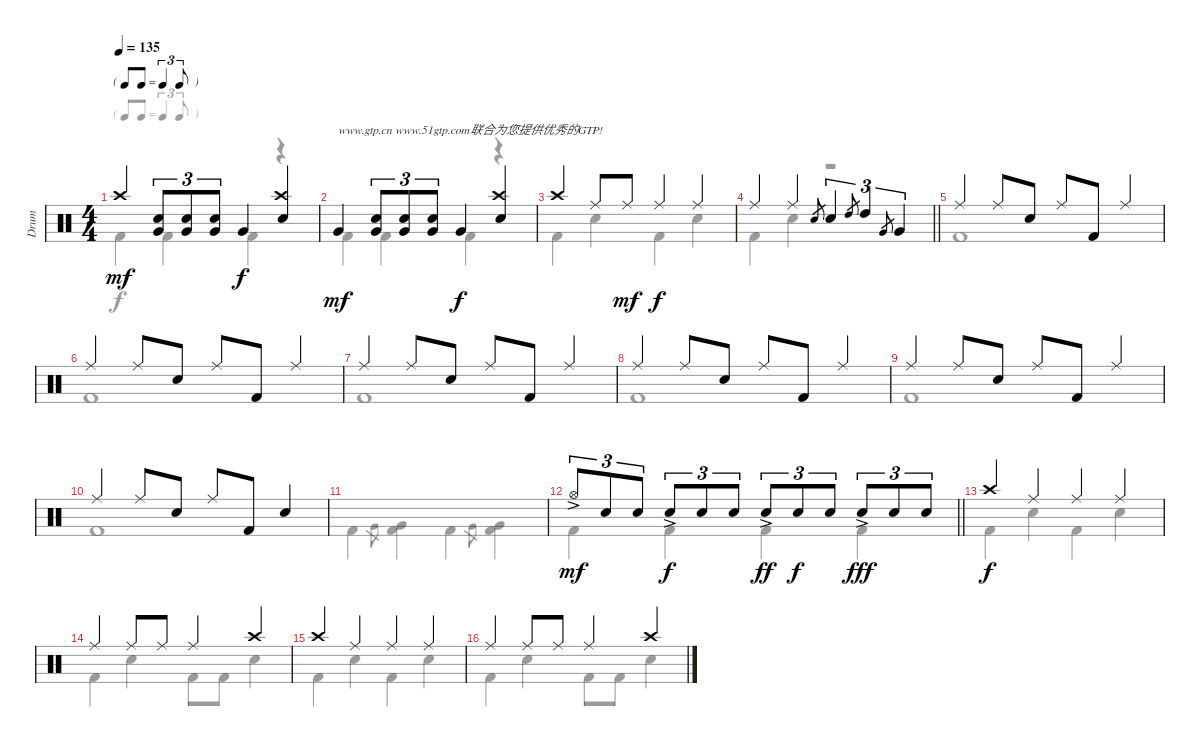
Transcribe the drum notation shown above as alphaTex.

\track ("Drum" "Drum") {instrument percussion}
\staff {score}
\articulation defaults
\voice
\ts (4 4)
\tf triplet8th
\tempo 135
\clef neutral
\ks c "Crash high (hit)".4{dy mf}
("Snare (hit) 2" "Very Low Tom (hit)").8{tu (3 2)} ("Snare (hit) 2" "Very Low Tom (hit)").8{tu (3 2)} ("Snare (hit) 2" "Very Low Tom (hit)").8{tu (3 2)} "Very Low Tom (hit)".4{dy f} ("Crash high (hit)" "Snare (hit) 2").4 |
"Very Low Tom (hit)".4{txt "www.gtp.cn www.51gtp.com联合为您提供优秀的GTP!" dy mf} ("Snare (hit) 2" "Very Low Tom (hit)").8{tu (3 2)} ("Snare (hit) 2" "Very Low Tom (hit)").8{tu (3 2)} ("Snare (hit) 2" "Very Low Tom (hit)").8{tu (3 2)} "Very Low Tom (hit)".4{dy f} ("Crash high (hit)" "Snare (hit) 2").4 |
"Crash high (hit)".4 "Ride (middle)".8 "Ride (middle)".8{dy mf} "Ride (middle)".4{dy f} "Ride (middle)".4 |
\barLineRight lightlight "Ride (middle)".4 "Ride (middle)".4 "Snare (hit) 2".8{gr} "Snare (hit) 2".4{tu (3 2)} "High Tom (hit)".8{gr} "High Tom (hit)".4{tu (3 2)} "Very Low Tom (hit)".8{gr} "Very Low Tom (hit)".4{tu (3 2)}
|
"Ride (middle)".4 "Ride (middle)".8 "Snare (hit) 2".8 "Ride (middle)".8 "Kick (hit) 2".8 "Ride (middle)".4 |
"Ride (middle)".4 "Ride (middle)".8 "Snare (hit) 2".8 "Ride (middle)".8 "Kick (hit) 2".8 "Ride (middle)".4 |
"Ride (middle)".4 "Ride (middle)".8 "Snare (hit) 2".8 "Ride (middle)".8 "Kick (hit) 2".8 "Ride (middle)".4 |
"Ride (middle)".4 "Ride (middle)".8 "Snare (hit) 2".8 "Ride (middle)".8 "Kick (hit) 2".8 "Ride (middle)".4 |
"Ride (middle)".4 "Ride (middle)".8 "Snare (hit) 2".8 "Ride (middle)".8 "Kick (hit) 2".8 "Ride (middle)".4 |
"Ride (middle)".4 "Ride (middle)".8 "Snare (hit) 2".8 "Ride (middle)".8 "Kick (hit) 2".8 "Snare (hit) 2".4 |
|
\barLineRight lightlight "Hi-Hat (open)"{ac}.8{tu (3 2) dy mf} "Snare (hit) 2".8{tu (3 2)} "Snare (hit) 2".8{tu (3 2)} "Snare (hit) 2"{ac}.8{tu (3 2) dy f} "Snare (hit) 2".8{tu (3 2)} "Snare (hit) 2".8{tu (3 2)} "Snare (hit) 2"{ac}.8{tu (3 2) dy ff} "Snare (hit) 2".8{tu (3 2) dy f} "Snare (hit) 2".8{tu (3 2)} "Snare (hit) 2"{ac}.8{tu (3 2) dy fff} "Snare (hit) 2".8{tu (3 2)} "Snare (hit) 2".8{tu (3 2)}
|
"Crash high (hit)".4{dy f} "Ride (middle)".4 "Ride (middle)".4 "Ride (middle)".4 |
"Ride (middle)".4 "Ride (middle)".8 "Ride (middle)".8 "Ride (middle)".4 "Crash high (hit)".4 |
"Crash high (hit)".4 "Ride (middle)".4 "Ride (middle)".4 "Ride (middle)".4 |
"Ride (middle)".4 "Ride (middle)".8 "Ride (middle)".8 "Ride (middle)".4 "Crash high (hit)".4
\voice
\clef neutral
\ottava regular
\simile none
\ks c "Kick (hit) 2".4{dy f} "Kick (hit) 2".4 "Kick (hit) 2".4
r.4 |
"Kick (hit) 2".4 "Kick (hit) 2".4 "Kick (hit) 2".4 r.4 |
"Kick (hit) 2".4 "Snare (hit) 2".4 "Kick (hit) 2".4 "Snare (hit) 2".4 |
\barLineRight lightlight "Kick (hit) 2".4 "Snare (hit) 2".4
r.2 |
"Kick (hit) 2".1 |
"Kick (hit) 2".1 |
"Kick (hit) 2".1 |
"Kick (hit) 2".1 |
"Kick (hit) 2".1 |
"Kick (hit) 2".1 |
"Kick (hit) 2".4 "Very Low Tom (hit)".8{gr} ("Kick (hit) 2" "Very Low Tom (hit)").4 "Kick (hit) 2".4 "Very Low Tom (hit)".8{gr} ("Kick (hit) 2" "Very Low Tom (hit)").4 |
\barLineRight lightlight "Kick (hit) 2".4 "Kick (hit) 2".4 "Kick (hit) 2".4 "Kick (hit) 2".4
|
"Kick (hit) 2".4 "Snare (hit) 2".4 "Kick (hit) 2".4 "Snare (hit) 2".4 |
"Kick (hit) 2".4 "Snare (hit) 2".4 "Kick (hit) 2".8 "Kick (hit) 2".8 "Snare (hit) 2".4 |
"Kick (hit) 2".4 "Snare (hit) 2".4 "Kick (hit) 2".4 "Snare (hit) 2".4 |
"Kick (hit) 2".4 "Snare (hit) 2".4 "Kick (hit) 2".8 "Kick (hit) 2".8 "Snare (hit) 2".4
